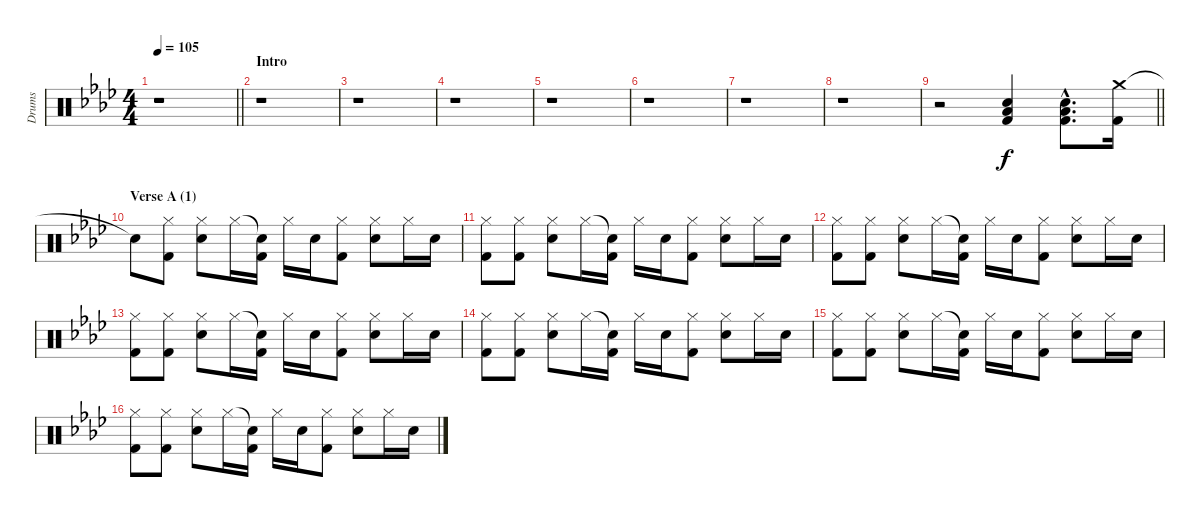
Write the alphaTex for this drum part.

\track ("Drums" "Drums") {instrument percussion}
\staff {score}
\articulation defaults
\ts (4 4)
\tempo 105
\clef neutral
\barLineRight lightlight
\ks fminor
r.1{dy f} |
\section ("" "Intro")
r.1 |
r.1 |
r.1 |
r.1 |
r.1 |
r.1 |
r.1 |
\barLineRight lightlight
r.2 ("Electric Snare (hit)" "Low Floor Tom (hit)" "Kick (hit) 2").4 ("Electric Snare (hit)"{hac} "Low Floor Tom (hit)"{hac} "Kick (hit) 2"{hac}).8{d} ("Crash medium (hit)" "Kick (hit) 2").16 |
\section ("" "Verse A (1)")
"Snare (hit)"{t}.8 ("Hi-Hat (closed)" "Kick (hit) 2").8 ("Hi-Hat (closed)" "Electric Snare (hit)").8 "Hi-Hat (closed)".16 ("Snare (hit)"{t} "Kick (hit) 2").16 "Hi-Hat (closed)".16 "Electric Snare (hit)".16 ("Hi-Hat (closed)" "Kick (hit) 2").8 ("Hi-Hat (closed)" "Electric Snare (hit)").8 "Hi-Hat (closed)".16 "Electric Snare (hit)".16 |
("Hi-Hat (closed)" "Kick (hit) 2").8 ("Hi-Hat (closed)" "Kick (hit) 2").8 ("Hi-Hat (closed)" "Electric Snare (hit)").8 "Hi-Hat (closed)".16 ("Snare (hit)"{t} "Kick (hit) 2").16 "Hi-Hat (closed)".16 "Electric Snare (hit)".16 ("Hi-Hat (closed)" "Kick (hit) 2").8 ("Hi-Hat (closed)" "Electric Snare (hit)").8 "Hi-Hat (closed)".16 "Electric Snare (hit)".16 |
("Hi-Hat (closed)" "Kick (hit) 2").8 ("Hi-Hat (closed)" "Kick (hit) 2").8 ("Hi-Hat (closed)" "Electric Snare (hit)").8 "Hi-Hat (closed)".16 ("Snare (hit)"{t} "Kick (hit) 2").16 "Hi-Hat (closed)".16 "Electric Snare (hit)".16 ("Hi-Hat (closed)" "Kick (hit) 2").8 ("Hi-Hat (closed)" "Electric Snare (hit)").8 "Hi-Hat (closed)".16 "Electric Snare (hit)".16 |
("Hi-Hat (closed)" "Kick (hit) 2").8 ("Hi-Hat (closed)" "Kick (hit) 2").8 ("Hi-Hat (closed)" "Electric Snare (hit)").8 "Hi-Hat (closed)".16 ("Snare (hit)"{t} "Kick (hit) 2").16 "Hi-Hat (closed)".16 "Electric Snare (hit)".16 ("Hi-Hat (closed)" "Kick (hit) 2").8 ("Hi-Hat (closed)" "Electric Snare (hit)").8 "Hi-Hat (closed)".16 "Electric Snare (hit)".16 |
("Hi-Hat (closed)" "Kick (hit) 2").8 ("Hi-Hat (closed)" "Kick (hit) 2").8 ("Hi-Hat (closed)" "Electric Snare (hit)").8 "Hi-Hat (closed)".16 ("Snare (hit)"{t} "Kick (hit) 2").16 "Hi-Hat (closed)".16 "Electric Snare (hit)".16 ("Hi-Hat (closed)" "Kick (hit) 2").8 ("Hi-Hat (closed)" "Electric Snare (hit)").8 "Hi-Hat (closed)".16 "Electric Snare (hit)".16 |
("Hi-Hat (closed)" "Kick (hit) 2").8 ("Hi-Hat (closed)" "Kick (hit) 2").8 ("Hi-Hat (closed)" "Electric Snare (hit)").8 "Hi-Hat (closed)".16 ("Snare (hit)"{t} "Kick (hit) 2").16 "Hi-Hat (closed)".16 "Electric Snare (hit)".16 ("Hi-Hat (closed)" "Kick (hit) 2").8 ("Hi-Hat (closed)" "Electric Snare (hit)").8 "Hi-Hat (closed)".16 "Electric Snare (hit)".16 |
("Hi-Hat (closed)" "Kick (hit) 2").8 ("Hi-Hat (closed)" "Kick (hit) 2").8 ("Hi-Hat (closed)" "Electric Snare (hit)").8 "Hi-Hat (closed)".16 ("Snare (hit)"{t} "Kick (hit) 2").16 "Hi-Hat (closed)".16 "Electric Snare (hit)".16 ("Hi-Hat (closed)" "Kick (hit) 2").8 ("Hi-Hat (closed)" "Electric Snare (hit)").8 "Hi-Hat (closed)".16 "Electric Snare (hit)".16
